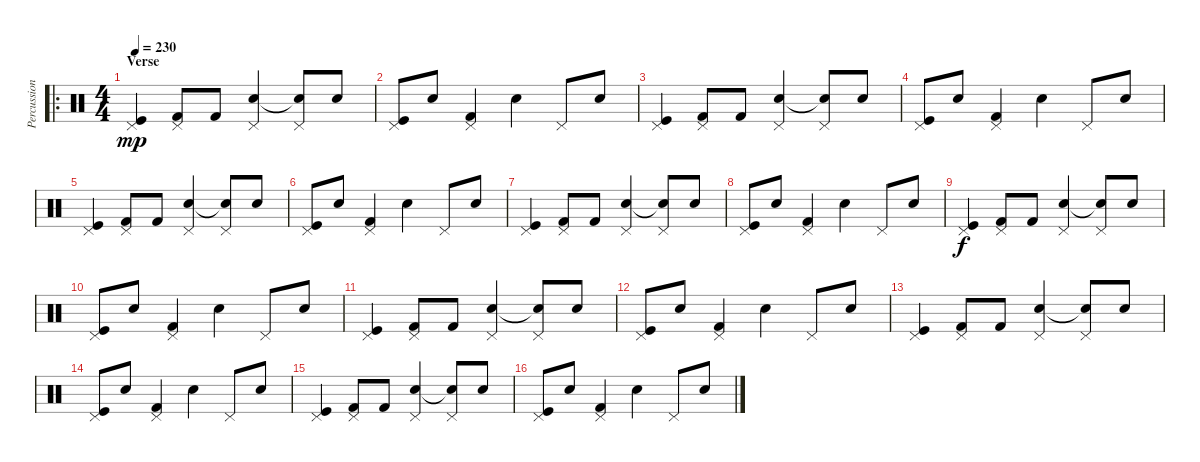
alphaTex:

\track ("Percussion" "Percussion") {instrument percussion}
\staff {score}
\articulation defaults
\ro
\ts (4 4)
\section ("" "Verse")
\tempo 230
\clef neutral
\ks c
("Pedal Hi-Hat (hit)" "Kick (hit)").4{dy mp} ("Pedal Hi-Hat (hit)" "Kick (hit) 2").8 "Kick (hit) 2".8 ("Pedal Hi-Hat (hit)" "Electric Snare (hit)").4 ("Pedal Hi-Hat (hit)" "Electric Snare (hit)"{t}).8 "Electric Snare (hit)".8 |
("Pedal Hi-Hat (hit)" "Kick (hit)").8 "Snare (hit) 2".8 ("Pedal Hi-Hat (hit)" "Kick (hit) 2").4 "Electric Snare (hit)".4 "Pedal Hi-Hat (hit)".8 "Snare (hit) 2".8 |
("Pedal Hi-Hat (hit)" "Kick (hit)").4 ("Pedal Hi-Hat (hit)" "Kick (hit) 2").8 "Kick (hit) 2".8 ("Pedal Hi-Hat (hit)" "Electric Snare (hit)").4 ("Pedal Hi-Hat (hit)" "Electric Snare (hit)"{t}).8 "Electric Snare (hit)".8 |
("Pedal Hi-Hat (hit)" "Kick (hit)").8 "Snare (hit) 2".8 ("Pedal Hi-Hat (hit)" "Kick (hit) 2").4 "Electric Snare (hit)".4 "Pedal Hi-Hat (hit)".8 "Snare (hit) 2".8 |
("Pedal Hi-Hat (hit)" "Kick (hit)").4 ("Pedal Hi-Hat (hit)" "Kick (hit) 2").8 "Kick (hit) 2".8 ("Pedal Hi-Hat (hit)" "Electric Snare (hit)").4 ("Pedal Hi-Hat (hit)" "Electric Snare (hit)"{t}).8 "Electric Snare (hit)".8 |
("Pedal Hi-Hat (hit)" "Kick (hit)").8 "Snare (hit) 2".8 ("Pedal Hi-Hat (hit)" "Kick (hit) 2").4 "Electric Snare (hit)".4 "Pedal Hi-Hat (hit)".8 "Snare (hit) 2".8 |
("Pedal Hi-Hat (hit)" "Kick (hit)").4 ("Pedal Hi-Hat (hit)" "Kick (hit) 2").8 "Kick (hit) 2".8 ("Pedal Hi-Hat (hit)" "Electric Snare (hit)").4 ("Pedal Hi-Hat (hit)" "Electric Snare (hit)"{t}).8 "Electric Snare (hit)".8 |
("Pedal Hi-Hat (hit)" "Kick (hit)").8 "Snare (hit) 2".8 ("Pedal Hi-Hat (hit)" "Kick (hit) 2").4 "Electric Snare (hit)".4 "Pedal Hi-Hat (hit)".8 "Snare (hit) 2".8 |
("Pedal Hi-Hat (hit)" "Kick (hit)").4{dy f} ("Pedal Hi-Hat (hit)" "Kick (hit) 2").8 "Kick (hit) 2".8 ("Pedal Hi-Hat (hit)" "Electric Snare (hit)").4 ("Pedal Hi-Hat (hit)" "Electric Snare (hit)"{t}).8 "Electric Snare (hit)".8 |
("Pedal Hi-Hat (hit)" "Kick (hit)").8 "Snare (hit) 2".8 ("Pedal Hi-Hat (hit)" "Kick (hit) 2").4 "Electric Snare (hit)".4 "Pedal Hi-Hat (hit)".8 "Snare (hit) 2".8 |
("Pedal Hi-Hat (hit)" "Kick (hit)").4 ("Pedal Hi-Hat (hit)" "Kick (hit) 2").8 "Kick (hit) 2".8 ("Pedal Hi-Hat (hit)" "Electric Snare (hit)").4 ("Pedal Hi-Hat (hit)" "Electric Snare (hit)"{t}).8 "Electric Snare (hit)".8 |
("Pedal Hi-Hat (hit)" "Kick (hit)").8 "Snare (hit) 2".8 ("Pedal Hi-Hat (hit)" "Kick (hit) 2").4 "Electric Snare (hit)".4 "Pedal Hi-Hat (hit)".8 "Snare (hit) 2".8 |
("Pedal Hi-Hat (hit)" "Kick (hit)").4 ("Pedal Hi-Hat (hit)" "Kick (hit) 2").8 "Kick (hit) 2".8 ("Pedal Hi-Hat (hit)" "Electric Snare (hit)").4 ("Pedal Hi-Hat (hit)" "Electric Snare (hit)"{t}).8 "Electric Snare (hit)".8 |
("Pedal Hi-Hat (hit)" "Kick (hit)").8 "Snare (hit) 2".8 ("Pedal Hi-Hat (hit)" "Kick (hit) 2").4 "Electric Snare (hit)".4 "Pedal Hi-Hat (hit)".8 "Snare (hit) 2".8 |
("Pedal Hi-Hat (hit)" "Kick (hit)").4 ("Pedal Hi-Hat (hit)" "Kick (hit) 2").8 "Kick (hit) 2".8 ("Pedal Hi-Hat (hit)" "Electric Snare (hit)").4 ("Pedal Hi-Hat (hit)" "Electric Snare (hit)"{t}).8 "Electric Snare (hit)".8 |
("Pedal Hi-Hat (hit)" "Kick (hit)").8 "Snare (hit) 2".8 ("Pedal Hi-Hat (hit)" "Kick (hit) 2").4 "Electric Snare (hit)".4 "Pedal Hi-Hat (hit)".8 "Snare (hit) 2".8
